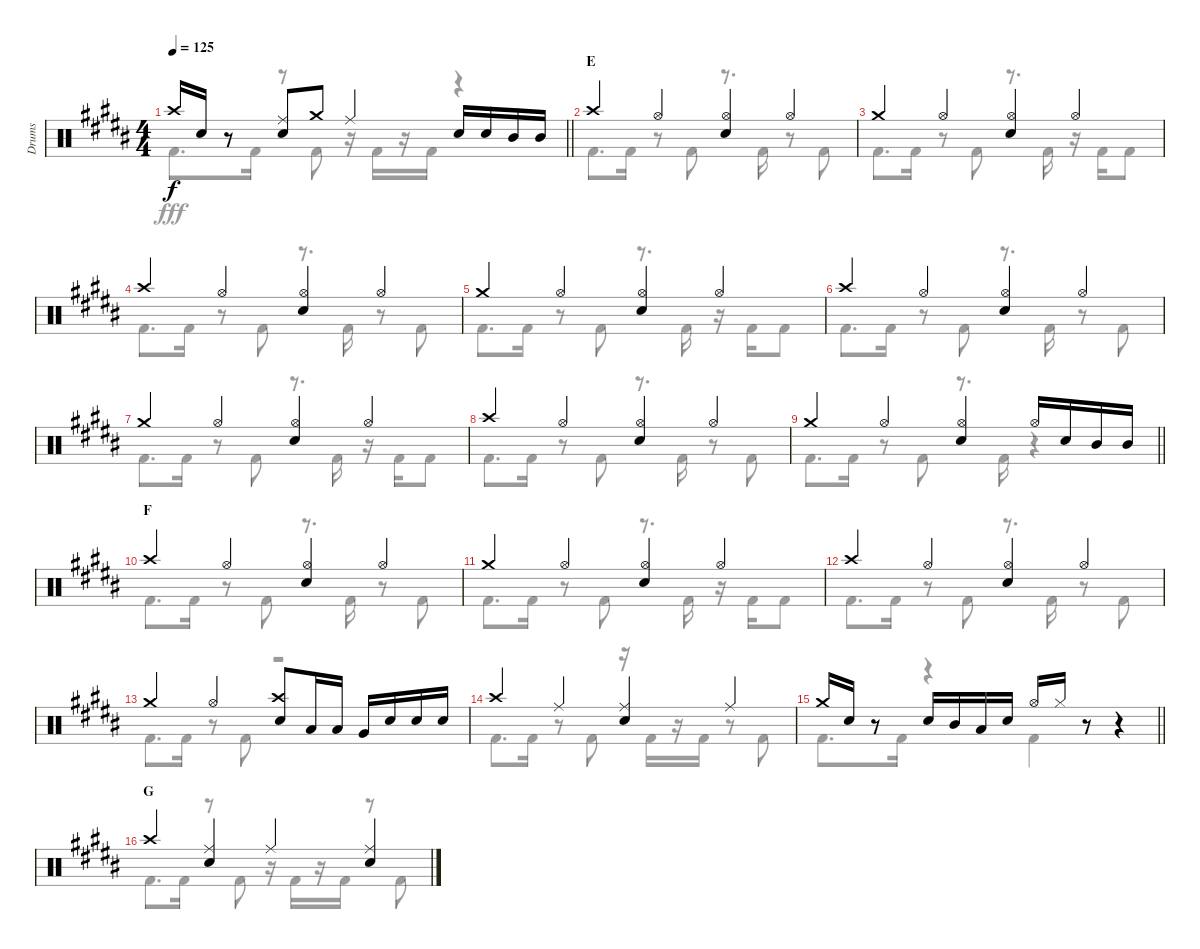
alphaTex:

\track ("Drums" "Drums") {instrument percussion}
\staff {score}
\articulation defaults
\voice
\ts (4 4)
\tempo 125
\clef neutral
\barLineRight lightlight
\ks b "Crash high (hit)".16{dy f} "Snare (hit) 2".16
r.8 ("Ride (middle)" "Snare (hit) 2").8 "Crash medium (hit)".8 "Ride (middle)".4 "Snare (hit) 2".16 "Snare (hit) 2".16 "Mid Tom (hit)".16 "Mid Tom (hit)".16 |
\section ("" "E")
"Crash high (hit)".4 "Hi-Hat (open)".4 ("Hi-Hat (open)" "Snare (hit) 2").4 "Hi-Hat (open)".4 |
"Crash medium (hit)".4 "Hi-Hat (open)".4 ("Hi-Hat (open)" "Snare (hit) 2").4 "Hi-Hat (open)".4 |
"Crash high (hit)".4 "Hi-Hat (open)".4 ("Hi-Hat (open)" "Snare (hit) 2").4 "Hi-Hat (open)".4 |
"Crash medium (hit)".4 "Hi-Hat (open)".4 ("Hi-Hat (open)" "Snare (hit) 2").4 "Hi-Hat (open)".4 |
"Crash high (hit)".4 "Hi-Hat (open)".4 ("Hi-Hat (open)" "Snare (hit) 2").4 "Hi-Hat (open)".4 |
"Crash medium (hit)".4 "Hi-Hat (open)".4 ("Hi-Hat (open)" "Snare (hit) 2").4 "Hi-Hat (open)".4 |
"Crash high (hit)".4 "Hi-Hat (open)".4 ("Hi-Hat (open)" "Snare (hit) 2").4 "Hi-Hat (open)".4 |
\barLineRight lightlight "Crash medium (hit)".4 "Hi-Hat (open)".4
("Hi-Hat (open)" "Snare (hit) 2").4 "Hi-Hat (open)".16 "Snare (hit) 2".16 "Mid Tom (hit)".16 "Mid Tom (hit)".16 |
\section ("" "F")
"Crash high (hit)".4 "Hi-Hat (open)".4 ("Hi-Hat (open)" "Snare (hit) 2").4 "Hi-Hat (open)".4 |
"Crash medium (hit)".4 "Hi-Hat (open)".4 ("Hi-Hat (open)" "Snare (hit) 2").4 "Hi-Hat (open)".4 |
"Crash high (hit)".4 "Hi-Hat (open)".4 ("Hi-Hat (open)" "Snare (hit) 2").4 "Hi-Hat (open)".4 |
"Crash medium (hit)".4 "Hi-Hat (open)".4 ("Crash high (hit)" "Snare (hit) 2").8 "Low Tom (hit)".16 "Low Tom (hit)".16 "Very Low Tom (hit)".16 "Snare (hit) 2".16 "Snare (hit) 2".16 "Snare (hit) 2".16 |
"Crash high (hit)".4 "Ride (middle)".4 ("Ride (middle)" "Snare (hit) 2").4 "Ride (middle)".4 |
\barLineRight lightlight "Crash medium (hit)".16 "Snare (hit) 2".16
r.8 "Snare (hit) 2".16 "Mid Tom (hit)".16 "Low Tom (hit)".16 "Snare (hit) 2".16 "Hi-Hat (open)".16 "Hi-Hat (closed)".16 r.8 r.4 |
\section ("" "G")
"Crash high (hit)".4 ("Ride (middle)" "Snare (hit) 2").4 "Ride (middle)".4 ("Ride (middle)" "Snare (hit) 2").4
\voice
\clef neutral
\ottava regular
\simile none
\barLineRight lightlight
\ks b "Kick (hit) 2".8{d dy fff} "Kick (hit) 2".16
r.8 "Kick (hit) 2".8 r.16 "Kick (hit) 2".16 r.16 "Kick (hit) 2".16 r.4 |
"Kick (hit) 2".8{d} "Kick (hit) 2".16 r.8 "Kick (hit) 2".8 r.8{d} "Kick (hit) 2".16 r.8 "Kick (hit) 2".8 |
"Kick (hit) 2".8{d} "Kick (hit) 2".16 r.8 "Kick (hit) 2".8 r.8{d} "Kick (hit) 2".16 r.16 "Kick (hit) 2".16 "Kick (hit) 2".8 |
"Kick (hit) 2".8{d} "Kick (hit) 2".16 r.8 "Kick (hit) 2".8 r.8{d} "Kick (hit) 2".16 r.8 "Kick (hit) 2".8 |
"Kick (hit) 2".8{d} "Kick (hit) 2".16 r.8 "Kick (hit) 2".8 r.8{d} "Kick (hit) 2".16 r.16 "Kick (hit) 2".16 "Kick (hit) 2".8 |
"Kick (hit) 2".8{d} "Kick (hit) 2".16 r.8 "Kick (hit) 2".8 r.8{d} "Kick (hit) 2".16 r.8 "Kick (hit) 2".8 |
"Kick (hit) 2".8{d} "Kick (hit) 2".16 r.8 "Kick (hit) 2".8 r.8{d} "Kick (hit) 2".16 r.16 "Kick (hit) 2".16 "Kick (hit) 2".8 |
"Kick (hit) 2".8{d} "Kick (hit) 2".16 r.8 "Kick (hit) 2".8 r.8{d} "Kick (hit) 2".16 r.8 "Kick (hit) 2".8 |
\barLineRight lightlight "Kick (hit) 2".8{d} "Kick (hit) 2".16
r.8 "Kick (hit) 2".8 r.8{d} "Kick (hit) 2".16 r.4 |
"Kick (hit) 2".8{d} "Kick (hit) 2".16 r.8 "Kick (hit) 2".8 r.8{d} "Kick (hit) 2".16 r.8 "Kick (hit) 2".8 |
"Kick (hit) 2".8{d} "Kick (hit) 2".16 r.8 "Kick (hit) 2".8 r.8{d} "Kick (hit) 2".16 r.16 "Kick (hit) 2".16 "Kick (hit) 2".8 |
"Kick (hit) 2".8{d} "Kick (hit) 2".16 r.8 "Kick (hit) 2".8 r.8{d} "Kick (hit) 2".16 r.8 "Kick (hit) 2".8 |
"Kick (hit) 2".8{d} "Kick (hit) 2".16 r.8 "Kick (hit) 2".8 r.2 |
"Kick (hit) 2".8{d} "Kick (hit) 2".16 r.8 "Kick (hit) 2".8 r.16 "Kick (hit) 2".16 r.16 "Kick (hit) 2".16 r.8 "Kick (hit) 2".8 |
\barLineRight lightlight "Kick (hit) 2".8{d} "Kick (hit) 2".16
r.4 "Kick (hit) 2".4 r.4 |
"Kick (hit) 2".8{d} "Kick (hit) 2".16 r.8 "Kick (hit) 2".8 r.16 "Kick (hit) 2".16 r.16 "Kick (hit) 2".16 r.8 "Kick (hit) 2".8
